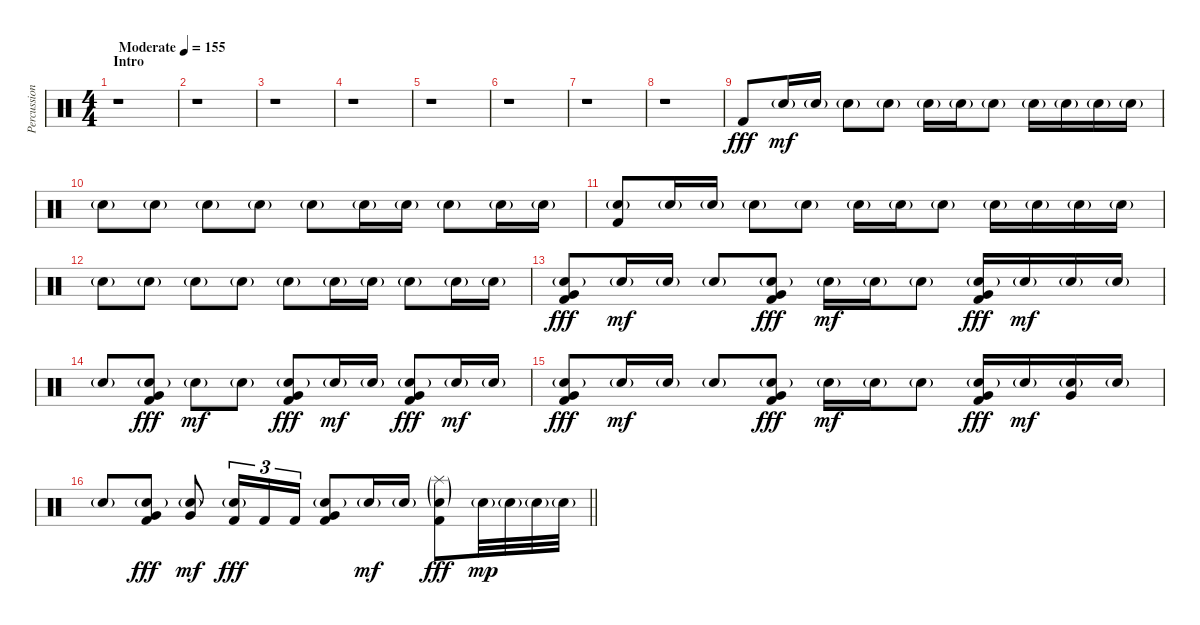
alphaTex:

\track ("Percussion" "Percussion") {instrument percussion}
\staff {score}
\articulation defaults
\ts (4 4)
\section ("" "Intro")
\tempo (155 "Moderate")
\clef neutral
\ks c
r.1{dy fff} |
r.1 |
r.1 |
r.1 |
r.1 |
r.1 |
r.1 |
r.1 |
"Kick (hit) 2".8 "Electric Snare (hit)"{g}.16{dy mf} "Electric Snare (hit)"{g}.16 "Electric Snare (hit)"{g}.8 "Electric Snare (hit)"{g}.8 "Electric Snare (hit)"{g}.16 "Electric Snare (hit)"{g}.16 "Electric Snare (hit)"{g}.8 "Electric Snare (hit)"{g}.16 "Electric Snare (hit)"{g}.16 "Electric Snare (hit)"{g}.16 "Electric Snare (hit)"{g}.16 |
"Electric Snare (hit)"{g}.8 "Electric Snare (hit)"{g}.8 "Electric Snare (hit)"{g}.8 "Electric Snare (hit)"{g}.8 "Electric Snare (hit)"{g}.8 "Electric Snare (hit)"{g}.16 "Electric Snare (hit)"{g}.16 "Electric Snare (hit)"{g}.8 "Electric Snare (hit)"{g}.16 "Electric Snare (hit)"{g}.16 |
("Electric Snare (hit)"{g} "Kick (hit) 2").8 "Electric Snare (hit)"{g}.16 "Electric Snare (hit)"{g}.16 "Electric Snare (hit)"{g}.8 "Electric Snare (hit)"{g}.8 "Electric Snare (hit)"{g}.16 "Electric Snare (hit)"{g}.16 "Electric Snare (hit)"{g}.8 "Electric Snare (hit)"{g}.16 "Electric Snare (hit)"{g}.16 "Electric Snare (hit)"{g}.16 "Electric Snare (hit)"{g}.16 |
"Electric Snare (hit)"{g}.8 "Electric Snare (hit)"{g}.8 "Electric Snare (hit)"{g}.8 "Electric Snare (hit)"{g}.8 "Electric Snare (hit)"{g}.8 "Electric Snare (hit)"{g}.16 "Electric Snare (hit)"{g}.16 "Electric Snare (hit)"{g}.8 "Electric Snare (hit)"{g}.16 "Electric Snare (hit)"{g}.16 |
("Very Low Tom (hit)" "Electric Snare (hit)"{g} "Kick (hit) 2").8{dy fff} "Electric Snare (hit)"{g}.16{dy mf} "Electric Snare (hit)"{g}.16 "Electric Snare (hit)"{g}.8 ("Very Low Tom (hit)" "Electric Snare (hit)"{g} "Kick (hit) 2").8{dy fff} "Electric Snare (hit)"{g}.16{dy mf} "Electric Snare (hit)"{g}.16 "Electric Snare (hit)"{g}.8 ("Very Low Tom (hit)" "Electric Snare (hit)"{g} "Kick (hit) 2").16{dy fff} "Electric Snare (hit)"{g}.16{dy mf} "Electric Snare (hit)"{g}.16 "Electric Snare (hit)"{g}.16 |
"Electric Snare (hit)"{g}.8 ("Very Low Tom (hit)" "Electric Snare (hit)"{g} "Kick (hit) 2").8{dy fff} "Electric Snare (hit)"{g}.8{dy mf} "Electric Snare (hit)"{g}.8 ("Very Low Tom (hit)" "Electric Snare (hit)"{g} "Kick (hit) 2").8{dy fff} "Electric Snare (hit)"{g}.16{dy mf} "Electric Snare (hit)"{g}.16 ("Very Low Tom (hit)" "Electric Snare (hit)"{g} "Kick (hit) 2").8{dy fff} "Electric Snare (hit)"{g}.16{dy mf} "Electric Snare (hit)"{g}.16 |
("Very Low Tom (hit)" "Electric Snare (hit)"{g} "Kick (hit) 2").8{dy fff} "Electric Snare (hit)"{g}.16{dy mf} "Electric Snare (hit)"{g}.16 "Electric Snare (hit)"{g}.8 ("Very Low Tom (hit)" "Electric Snare (hit)"{g} "Kick (hit) 2").8{dy fff} "Electric Snare (hit)"{g}.16{dy mf} "Electric Snare (hit)"{g}.16 "Electric Snare (hit)"{g}.8 ("Very Low Tom (hit)" "Electric Snare (hit)"{g} "Kick (hit) 2").16{dy fff} "Electric Snare (hit)"{g}.16{dy mf} ("Very Low Tom (hit)" "Electric Snare (hit)"{g}).16 "Electric Snare (hit)"{g}.16 |
\barLineRight lightlight "Electric Snare (hit)"{g}.8
("Very Low Tom (hit)" "Electric Snare (hit)"{g} "Kick (hit) 2").8{dy fff} ("Very Low Tom (hit)" "Electric Snare (hit)"{g}).8{dy mf} ("Electric Snare (hit)"{g} "Kick (hit) 2").16{tu (3 2) dy fff} "Kick (hit) 2".16{tu (3 2)} "Kick (hit) 2".16{tu (3 2)} ("Very Low Tom (hit)" "Electric Snare (hit)"{g} "Kick (hit) 2").8 "Electric Snare (hit)"{g}.16{dy mf} "Electric Snare (hit)"{g}.16 ("Splash (hit)"{g} "Electric Snare (hit)"{g} "Kick (hit) 2").8{dy fff} "Electric Snare (hit)"{g}.32{dy mp} "Electric Snare (hit)"{g}.32 "Electric Snare (hit)"{g}.32 "Electric Snare (hit)"{g}.32
